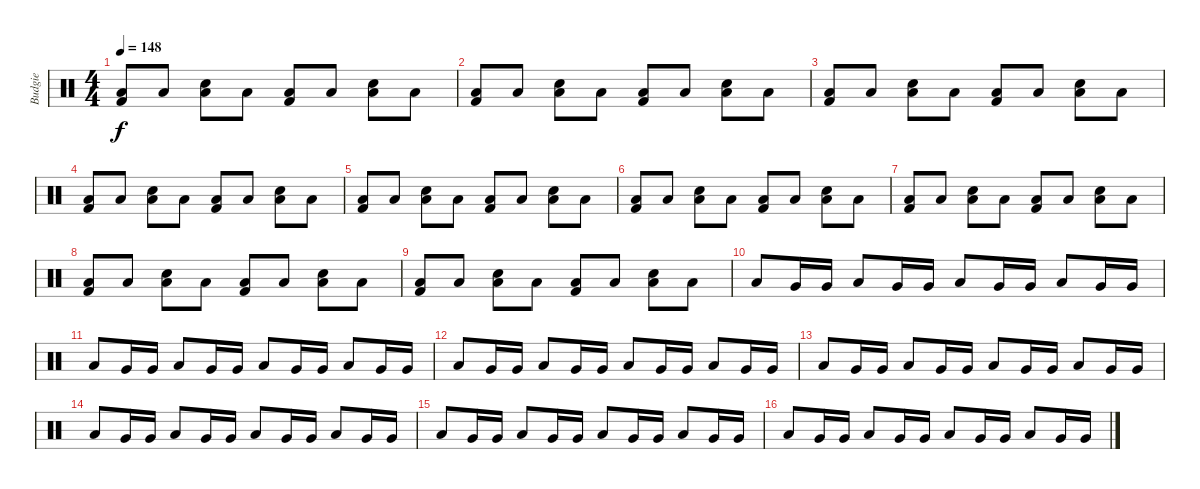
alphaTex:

\track ("Budgie" "Budgie") {instrument percussion}
\staff {score}
\articulation defaults
\ts (4 4)
\tempo 148
\clef neutral
\ks c
("Low Floor Tom (hit)" "Kick (hit) 2").8{dy f} "Low Floor Tom (hit)".8 ("Snare (hit) 2" "Low Floor Tom (hit)").8 "Low Floor Tom (hit)".8 ("Low Floor Tom (hit)" "Kick (hit) 2").8 "Low Floor Tom (hit)".8 ("Snare (hit) 2" "Low Floor Tom (hit)").8 "Low Floor Tom (hit)".8 |
("Low Floor Tom (hit)" "Kick (hit) 2").8 "Low Floor Tom (hit)".8 ("Snare (hit) 2" "Low Floor Tom (hit)").8 "Low Floor Tom (hit)".8 ("Low Floor Tom (hit)" "Kick (hit) 2").8 "Low Floor Tom (hit)".8 ("Snare (hit) 2" "Low Floor Tom (hit)").8 "Low Floor Tom (hit)".8 |
("Low Floor Tom (hit)" "Kick (hit) 2").8 "Low Floor Tom (hit)".8 ("Snare (hit) 2" "Low Floor Tom (hit)").8 "Low Floor Tom (hit)".8 ("Low Floor Tom (hit)" "Kick (hit) 2").8 "Low Floor Tom (hit)".8 ("Snare (hit) 2" "Low Floor Tom (hit)").8 "Low Floor Tom (hit)".8 |
("Low Floor Tom (hit)" "Kick (hit) 2").8 "Low Floor Tom (hit)".8 ("Snare (hit) 2" "Low Floor Tom (hit)").8 "Low Floor Tom (hit)".8 ("Low Floor Tom (hit)" "Kick (hit) 2").8 "Low Floor Tom (hit)".8 ("Snare (hit) 2" "Low Floor Tom (hit)").8 "Low Floor Tom (hit)".8 |
("Low Floor Tom (hit)" "Kick (hit) 2").8 "Low Floor Tom (hit)".8 ("Snare (hit) 2" "Low Floor Tom (hit)").8 "Low Floor Tom (hit)".8 ("Low Floor Tom (hit)" "Kick (hit) 2").8 "Low Floor Tom (hit)".8 ("Snare (hit) 2" "Low Floor Tom (hit)").8 "Low Floor Tom (hit)".8 |
("Low Floor Tom (hit)" "Kick (hit) 2").8 "Low Floor Tom (hit)".8 ("Snare (hit) 2" "Low Floor Tom (hit)").8 "Low Floor Tom (hit)".8 ("Low Floor Tom (hit)" "Kick (hit) 2").8 "Low Floor Tom (hit)".8 ("Snare (hit) 2" "Low Floor Tom (hit)").8 "Low Floor Tom (hit)".8 |
("Low Floor Tom (hit)" "Kick (hit) 2").8 "Low Floor Tom (hit)".8 ("Snare (hit) 2" "Low Floor Tom (hit)").8 "Low Floor Tom (hit)".8 ("Low Floor Tom (hit)" "Kick (hit) 2").8 "Low Floor Tom (hit)".8 ("Snare (hit) 2" "Low Floor Tom (hit)").8 "Low Floor Tom (hit)".8 |
("Low Floor Tom (hit)" "Kick (hit) 2").8 "Low Floor Tom (hit)".8 ("Snare (hit) 2" "Low Floor Tom (hit)").8 "Low Floor Tom (hit)".8 ("Low Floor Tom (hit)" "Kick (hit) 2").8 "Low Floor Tom (hit)".8 ("Snare (hit) 2" "Low Floor Tom (hit)").8 "Low Floor Tom (hit)".8 |
("Low Floor Tom (hit)" "Kick (hit) 2").8 "Low Floor Tom (hit)".8 ("Snare (hit) 2" "Low Floor Tom (hit)").8 "Low Floor Tom (hit)".8 ("Low Floor Tom (hit)" "Kick (hit) 2").8 "Low Floor Tom (hit)".8 ("Snare (hit) 2" "Low Floor Tom (hit)").8 "Low Floor Tom (hit)".8 |
"Low Floor Tom (hit)".8 "Very Low Tom (hit)".16 "Very Low Tom (hit)".16 "Low Tom (hit)".8 "Very Low Tom (hit)".16 "Very Low Tom (hit)".16 "Low Floor Tom (hit)".8 "Very Low Tom (hit)".16 "Very Low Tom (hit)".16 "Low Tom (hit)".8 "Very Low Tom (hit)".16 "Very Low Tom (hit)".16 |
"Low Floor Tom (hit)".8 "Very Low Tom (hit)".16 "Very Low Tom (hit)".16 "Low Tom (hit)".8 "Very Low Tom (hit)".16 "Very Low Tom (hit)".16 "Low Floor Tom (hit)".8 "Very Low Tom (hit)".16 "Very Low Tom (hit)".16 "Low Tom (hit)".8 "Very Low Tom (hit)".16 "Very Low Tom (hit)".16 |
"Low Floor Tom (hit)".8 "Very Low Tom (hit)".16 "Very Low Tom (hit)".16 "Low Tom (hit)".8 "Very Low Tom (hit)".16 "Very Low Tom (hit)".16 "Low Floor Tom (hit)".8 "Very Low Tom (hit)".16 "Very Low Tom (hit)".16 "Low Tom (hit)".8 "Very Low Tom (hit)".16 "Very Low Tom (hit)".16 |
"Low Floor Tom (hit)".8 "Very Low Tom (hit)".16 "Very Low Tom (hit)".16 "Low Tom (hit)".8 "Very Low Tom (hit)".16 "Very Low Tom (hit)".16 "Low Floor Tom (hit)".8 "Very Low Tom (hit)".16 "Very Low Tom (hit)".16 "Low Tom (hit)".8 "Very Low Tom (hit)".16 "Very Low Tom (hit)".16 |
"Low Floor Tom (hit)".8 "Very Low Tom (hit)".16 "Very Low Tom (hit)".16 "Low Tom (hit)".8 "Very Low Tom (hit)".16 "Very Low Tom (hit)".16 "Low Floor Tom (hit)".8 "Very Low Tom (hit)".16 "Very Low Tom (hit)".16 "Low Tom (hit)".8 "Very Low Tom (hit)".16 "Very Low Tom (hit)".16 |
"Low Floor Tom (hit)".8 "Very Low Tom (hit)".16 "Very Low Tom (hit)".16 "Low Tom (hit)".8 "Very Low Tom (hit)".16 "Very Low Tom (hit)".16 "Low Floor Tom (hit)".8 "Very Low Tom (hit)".16 "Very Low Tom (hit)".16 "Low Tom (hit)".8 "Very Low Tom (hit)".16 "Very Low Tom (hit)".16 |
"Low Floor Tom (hit)".8 "Very Low Tom (hit)".16 "Very Low Tom (hit)".16 "Low Tom (hit)".8 "Very Low Tom (hit)".16 "Very Low Tom (hit)".16 "Low Floor Tom (hit)".8 "Very Low Tom (hit)".16 "Very Low Tom (hit)".16 "Low Tom (hit)".8 "Very Low Tom (hit)".16 "Very Low Tom (hit)".16
